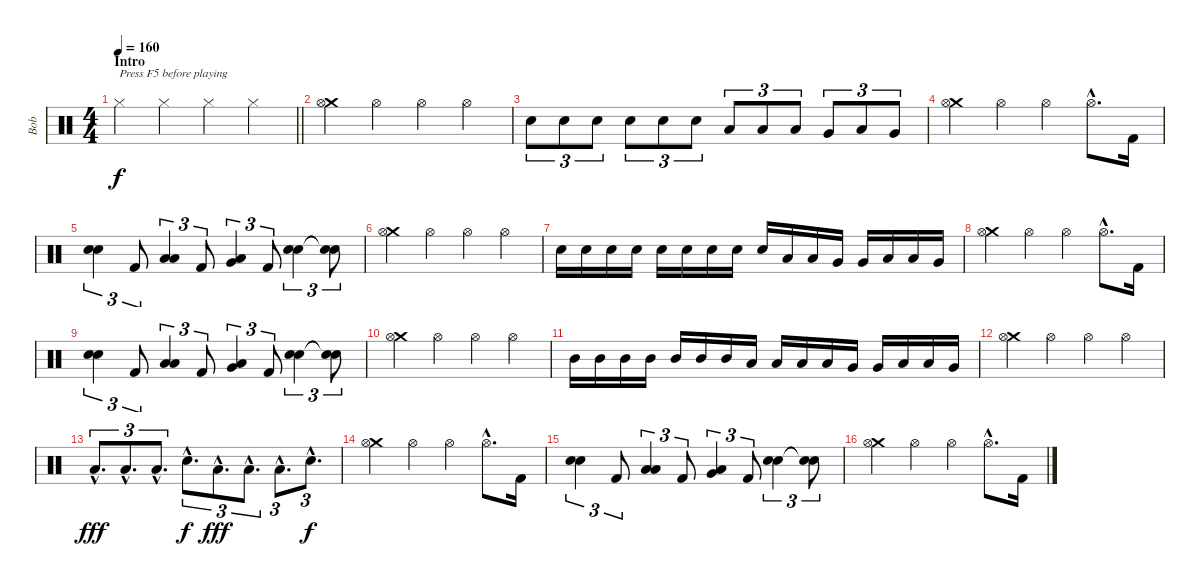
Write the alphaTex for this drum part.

\track ("Bob" "Bob") {instrument percussion}
\staff {score}
\articulation defaults
\ts (4 4)
\section ("" "Intro")
\tempo 160
\clef neutral
\barLineRight lightlight
\ks c "Hi-Hat (closed)".4{txt "Press F5 before playing" dy f} "Hi-Hat (closed)".4 "Hi-Hat (closed)".4 "Hi-Hat (closed)".4
|
("Crash medium (hit)" "Hi-Hat (open)").4 "Hi-Hat (open)".4 "Hi-Hat (open)".4 "Hi-Hat (open)".4 |
"Snare (hit) 2".8{tu (3 2)} "Snare (hit) 2".8{tu (3 2)} "Snare (hit) 2".8{tu (3 2)} "Snare (hit) 2".8{tu (3 2)} "Snare (hit) 2".8{tu (3 2)} "Snare (hit) 2".8{tu (3 2)} "Low Tom (hit)".8{tu (3 2)} "Low Tom (hit)".8{tu (3 2)} "Low Tom (hit)".8{tu (3 2)} "Very Low Tom (hit)".8{tu (3 2)} "Low Floor Tom (hit)".8{tu (3 2)} "Very Low Tom (hit)".8{tu (3 2)} |
("Crash medium (hit)" "Hi-Hat (open)").4 "Hi-Hat (open)".4 "Hi-Hat (open)".4 "Hi-Hat (open)"{hac}.8{d} "Kick (hit) 2".16 |
("Electric Snare (hit)" "Snare (hit) 2").4{tu (3 2)} "Kick (hit) 2".8{tu (3 2)} ("Low Tom (hit)" "Low Floor Tom (hit)").4{tu (3 2)} "Kick (hit) 2".8{tu (3 2)} ("Very Low Tom (hit)" "Low Floor Tom (hit)").4{tu (3 2)} "Kick (hit) 2".8{tu (3 2)} ("Electric Snare (hit)" "Snare (hit) 2").4{tu (3 2)} ("Snare (hit)"{t} "Snare (hit)"{t}).8{tu (3 2)} |
("Crash medium (hit)" "Hi-Hat (open)").4 "Hi-Hat (open)".4 "Hi-Hat (open)".4 "Hi-Hat (open)".4 |
"Snare (hit) 2".16 "Snare (hit) 2".16 "Snare (hit) 2".16 "Snare (hit) 2".16 "Snare (hit) 2".16 "Snare (hit) 2".16 "Snare (hit) 2".16 "Snare (hit) 2".16 "Snare (hit) 2".16 "Low Tom (hit)".16 "Low Tom (hit)".16 "Very Low Tom (hit)".16 "Very Low Tom (hit)".16 "Low Floor Tom (hit)".16 "Low Floor Tom (hit)".16 "Very Low Tom (hit)".16 |
("Crash medium (hit)" "Hi-Hat (open)").4 "Hi-Hat (open)".4 "Hi-Hat (open)".4 "Hi-Hat (open)"{hac}.8{d} "Kick (hit) 2".16 |
("Electric Snare (hit)" "Snare (hit) 2").4{tu (3 2)} "Kick (hit) 2".8{tu (3 2)} ("Low Tom (hit)" "Low Floor Tom (hit)").4{tu (3 2)} "Kick (hit) 2".8{tu (3 2)} ("Very Low Tom (hit)" "Low Floor Tom (hit)").4{tu (3 2)} "Kick (hit) 2".8{tu (3 2)} ("Electric Snare (hit)" "Snare (hit) 2").4{tu (3 2)} ("Snare (hit)"{t} "Snare (hit)"{t}).8{tu (3 2)} |
("Crash medium (hit)" "Hi-Hat (open)").4 "Hi-Hat (open)".4 "Hi-Hat (open)".4 "Hi-Hat (open)".4 |
"Mid Tom (hit)".16 "Mid Tom (hit)".16 "Mid Tom (hit)".16 "Mid Tom (hit)".16 "Mid Tom (hit)".16 "Mid Tom (hit)".16 "Mid Tom (hit)".16 "Low Floor Tom (hit)".16 "Low Tom (hit)".16 "Low Tom (hit)".16 "Low Tom (hit)".16 "Very Low Tom (hit)".16 "Very Low Tom (hit)".16 "Low Floor Tom (hit)".16 "Low Floor Tom (hit)".16 "Very Low Tom (hit)".16 |
("Crash medium (hit)" "Hi-Hat (open)").4 "Hi-Hat (open)".4 "Hi-Hat (open)".4 "Hi-Hat (open)".4 |
"Low Tom (hit)"{hac}.8{d tu (3 2) dy fff} "Low Tom (hit)"{hac}.8{d tu (3 2)} "Low Floor Tom (hit)"{hac}.8{d tu (3 2)} "Snare (hit) 2"{hac}.8{d tu (3 2) dy f} "Low Tom (hit)"{hac}.8{d tu (3 2) dy fff} "Low Tom (hit)"{hac}.8{d tu (3 2)} "Low Floor Tom (hit)"{hac}.8{d tu (3 2)} "Snare (hit) 2"{hac}.8{d tu (3 2) dy f} |
("Crash medium (hit)" "Hi-Hat (open)").4 "Hi-Hat (open)".4 "Hi-Hat (open)".4 "Hi-Hat (open)"{hac}.8{d} "Kick (hit) 2".16 |
("Electric Snare (hit)" "Snare (hit) 2").4{tu (3 2)} "Kick (hit) 2".8{tu (3 2)} ("Low Tom (hit)" "Low Floor Tom (hit)").4{tu (3 2)} "Kick (hit) 2".8{tu (3 2)} ("Very Low Tom (hit)" "Low Floor Tom (hit)").4{tu (3 2)} "Kick (hit) 2".8{tu (3 2)} ("Electric Snare (hit)" "Snare (hit) 2").4{tu (3 2)} ("Snare (hit)"{t} "Snare (hit)"{t}).8{tu (3 2)} |
("Crash medium (hit)" "Hi-Hat (open)").4 "Hi-Hat (open)".4 "Hi-Hat (open)".4 "Hi-Hat (open)"{hac}.8{d} "Kick (hit) 2".16
